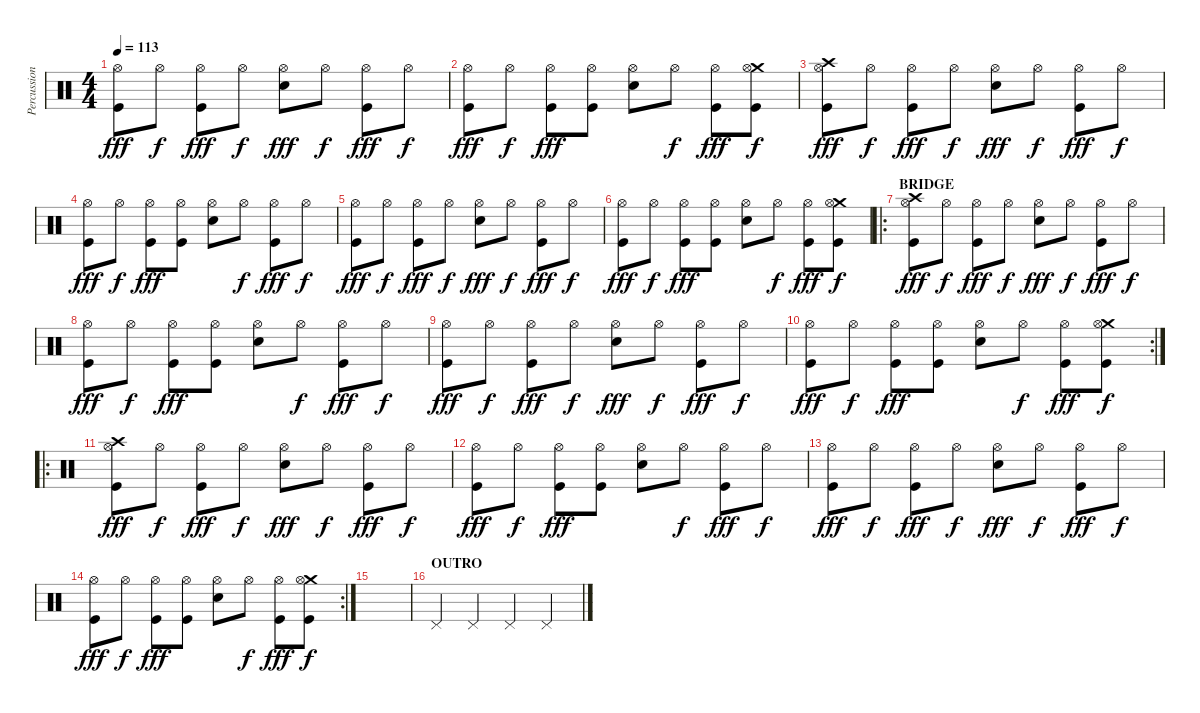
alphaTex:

\track ("Percussion" "Percussion") {instrument percussion}
\staff {score}
\articulation defaults
\ts (4 4)
\tempo 113
\clef neutral
\ks c
("Kick (hit)" "Hi-Hat (open)").8{dy fff} "Hi-Hat (open)".8{dy f} ("Kick (hit)" "Hi-Hat (open)").8{dy fff} "Hi-Hat (open)".8{dy f} ("Snare (hit) 2" "Hi-Hat (open)").8{dy fff} "Hi-Hat (open)".8{dy f} ("Kick (hit)" "Hi-Hat (open)").8{dy fff} "Hi-Hat (open)".8{dy f} |
("Kick (hit)" "Hi-Hat (open)").8{dy fff} "Hi-Hat (open)".8{dy f} ("Kick (hit)" "Hi-Hat (open)").8{dy fff} ("Kick (hit)" "Hi-Hat (open)").8 ("Snare (hit) 2" "Hi-Hat (open)").8 "Hi-Hat (open)".8{dy f} ("Kick (hit)" "Hi-Hat (open)").8{dy fff} ("Crash medium (hit)" "Kick (hit)" "Hi-Hat (open)").8{dy f} |
("Crash high (hit)" "Kick (hit)" "Hi-Hat (open)").8{dy fff} "Hi-Hat (open)".8{dy f} ("Kick (hit)" "Hi-Hat (open)").8{dy fff} "Hi-Hat (open)".8{dy f} ("Snare (hit) 2" "Hi-Hat (open)").8{dy fff} "Hi-Hat (open)".8{dy f} ("Kick (hit)" "Hi-Hat (open)").8{dy fff} "Hi-Hat (open)".8{dy f} |
("Kick (hit)" "Hi-Hat (open)").8{dy fff} "Hi-Hat (open)".8{dy f} ("Kick (hit)" "Hi-Hat (open)").8{dy fff} ("Kick (hit)" "Hi-Hat (open)").8 ("Snare (hit) 2" "Hi-Hat (open)").8 "Hi-Hat (open)".8{dy f} ("Kick (hit)" "Hi-Hat (open)").8{dy fff} "Hi-Hat (open)".8{dy f} |
("Kick (hit)" "Hi-Hat (open)").8{dy fff} "Hi-Hat (open)".8{dy f} ("Kick (hit)" "Hi-Hat (open)").8{dy fff} "Hi-Hat (open)".8{dy f} ("Snare (hit) 2" "Hi-Hat (open)").8{dy fff} "Hi-Hat (open)".8{dy f} ("Kick (hit)" "Hi-Hat (open)").8{dy fff} "Hi-Hat (open)".8{dy f} |
("Kick (hit)" "Hi-Hat (open)").8{dy fff} "Hi-Hat (open)".8{dy f} ("Kick (hit)" "Hi-Hat (open)").8{dy fff} ("Kick (hit)" "Hi-Hat (open)").8 ("Snare (hit) 2" "Hi-Hat (open)").8 "Hi-Hat (open)".8{dy f} ("Kick (hit)" "Hi-Hat (open)").8{dy fff} ("Crash medium (hit)" "Kick (hit)" "Hi-Hat (open)").8{dy f} |
\ro
\section ("" "BRIDGE")
("Crash high (hit)" "Kick (hit)" "Hi-Hat (open)").8{dy fff} "Hi-Hat (open)".8{dy f} ("Kick (hit)" "Hi-Hat (open)").8{dy fff} "Hi-Hat (open)".8{dy f} ("Snare (hit) 2" "Hi-Hat (open)").8{dy fff} "Hi-Hat (open)".8{dy f} ("Kick (hit)" "Hi-Hat (open)").8{dy fff} "Hi-Hat (open)".8{dy f} |
("Kick (hit)" "Hi-Hat (open)").8{dy fff} "Hi-Hat (open)".8{dy f} ("Kick (hit)" "Hi-Hat (open)").8{dy fff} ("Kick (hit)" "Hi-Hat (open)").8 ("Snare (hit) 2" "Hi-Hat (open)").8 "Hi-Hat (open)".8{dy f} ("Kick (hit)" "Hi-Hat (open)").8{dy fff} "Hi-Hat (open)".8{dy f} |
("Kick (hit)" "Hi-Hat (open)").8{dy fff} "Hi-Hat (open)".8{dy f} ("Kick (hit)" "Hi-Hat (open)").8{dy fff} "Hi-Hat (open)".8{dy f} ("Snare (hit) 2" "Hi-Hat (open)").8{dy fff} "Hi-Hat (open)".8{dy f} ("Kick (hit)" "Hi-Hat (open)").8{dy fff} "Hi-Hat (open)".8{dy f} |
\rc 2
("Kick (hit)" "Hi-Hat (open)").8{dy fff} "Hi-Hat (open)".8{dy f} ("Kick (hit)" "Hi-Hat (open)").8{dy fff} ("Kick (hit)" "Hi-Hat (open)").8 ("Snare (hit) 2" "Hi-Hat (open)").8 "Hi-Hat (open)".8{dy f} ("Kick (hit)" "Hi-Hat (open)").8{dy fff} ("Crash medium (hit)" "Kick (hit)" "Hi-Hat (open)").8{dy f} |
\ro
("Crash high (hit)" "Kick (hit)" "Hi-Hat (open)").8{dy fff} "Hi-Hat (open)".8{dy f} ("Kick (hit)" "Hi-Hat (open)").8{dy fff} "Hi-Hat (open)".8{dy f} ("Snare (hit) 2" "Hi-Hat (open)").8{dy fff} "Hi-Hat (open)".8{dy f} ("Kick (hit)" "Hi-Hat (open)").8{dy fff} "Hi-Hat (open)".8{dy f} |
("Kick (hit)" "Hi-Hat (open)").8{dy fff} "Hi-Hat (open)".8{dy f} ("Kick (hit)" "Hi-Hat (open)").8{dy fff} ("Kick (hit)" "Hi-Hat (open)").8 ("Snare (hit) 2" "Hi-Hat (open)").8 "Hi-Hat (open)".8{dy f} ("Kick (hit)" "Hi-Hat (open)").8{dy fff} "Hi-Hat (open)".8{dy f} |
("Kick (hit)" "Hi-Hat (open)").8{dy fff} "Hi-Hat (open)".8{dy f} ("Kick (hit)" "Hi-Hat (open)").8{dy fff} "Hi-Hat (open)".8{dy f} ("Snare (hit) 2" "Hi-Hat (open)").8{dy fff} "Hi-Hat (open)".8{dy f} ("Kick (hit)" "Hi-Hat (open)").8{dy fff} "Hi-Hat (open)".8{dy f} |
\rc 2
("Kick (hit)" "Hi-Hat (open)").8{dy fff} "Hi-Hat (open)".8{dy f} ("Kick (hit)" "Hi-Hat (open)").8{dy fff} ("Kick (hit)" "Hi-Hat (open)").8 ("Snare (hit) 2" "Hi-Hat (open)").8 "Hi-Hat (open)".8{dy f} ("Kick (hit)" "Hi-Hat (open)").8{dy fff} ("Crash medium (hit)" "Kick (hit)" "Hi-Hat (open)").8{dy f} |
|
\section ("" "OUTRO")
"Pedal Hi-Hat (hit)".4 "Pedal Hi-Hat (hit)".4 "Pedal Hi-Hat (hit)".4 "Pedal Hi-Hat (hit)".4
